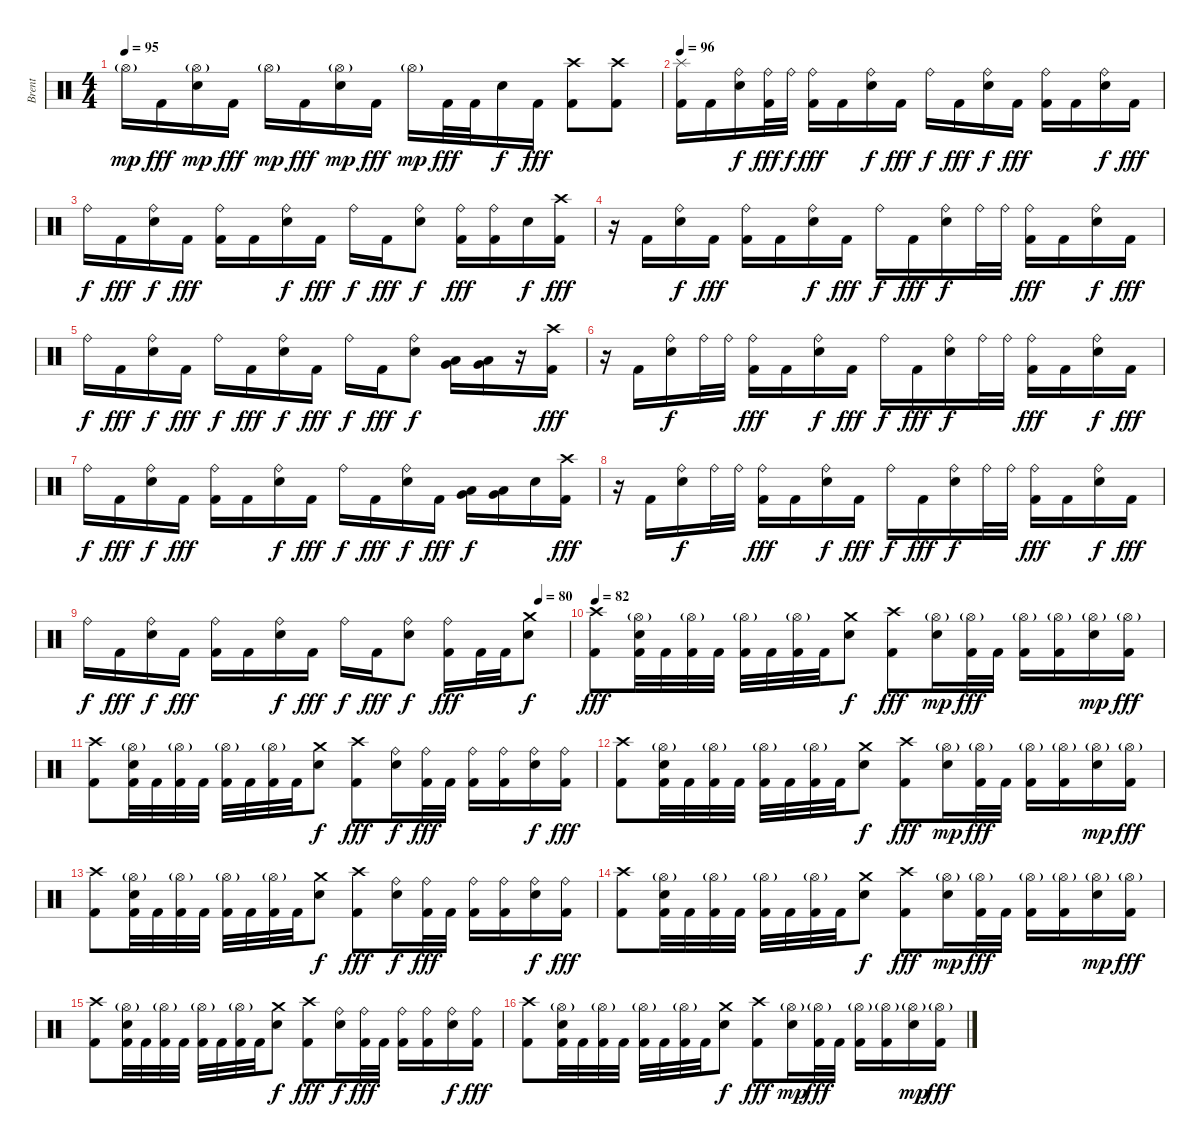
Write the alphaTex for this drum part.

\track ("Brent" "Brent") {instrument percussion}
\staff {score}
\articulation defaults
\ts (4 4)
\tempo 95
\clef neutral
\ks c "Hi-Hat (open)"{g}.16{dy mp} "Kick (hit) 2".16{dy fff}
("Hi-Hat (open)"{g} "Snare (hit) 2").16{dy mp} "Kick (hit) 2".16{dy fff} "Hi-Hat (open)"{g}.16{dy mp} "Kick (hit) 2".16{dy fff} ("Hi-Hat (open)"{g} "Snare (hit) 2").16{dy mp} "Kick (hit) 2".16{dy fff} "Hi-Hat (open)"{g}.16{dy mp} "Kick (hit) 2".32{dy fff} "Kick (hit) 2".32 "Snare (hit) 2".16{dy f} "Kick (hit) 2".16{dy fff} ("Crash high (hit)" "Kick (hit) 2").8 ("Crash high (hit)" "Kick (hit) 2").8 |
\tempo 96
("Splash (hit)" "Kick (hit) 2").16 "Kick (hit) 2".16 ("Ride (bell)" "Snare (hit) 2").16{dy f} ("Ride (bell)" "Kick (hit) 2").32{dy fff} "Ride (bell)".32{dy f} ("Ride (bell)" "Kick (hit) 2").16{dy fff} "Kick (hit) 2".16 ("Ride (bell)" "Snare (hit) 2").16{dy f} "Kick (hit) 2".16{dy fff} "Ride (bell)".16{dy f} "Kick (hit) 2".16{dy fff} ("Ride (bell)" "Snare (hit) 2").16{dy f} "Kick (hit) 2".16{dy fff} ("Ride (bell)" "Kick (hit) 2").16 "Kick (hit) 2".16 ("Ride (bell)" "Snare (hit) 2").16{dy f} "Kick (hit) 2".16{dy fff} |
"Ride (bell)".16{dy f} "Kick (hit) 2".16{dy fff} ("Ride (bell)" "Snare (hit) 2").16{dy f} "Kick (hit) 2".16{dy fff} ("Ride (bell)" "Kick (hit) 2").16 "Kick (hit) 2".16 ("Ride (bell)" "Snare (hit) 2").16{dy f} "Kick (hit) 2".16{dy fff} "Ride (bell)".16{dy f} "Kick (hit) 2".16{dy fff} ("Ride (bell)" "Snare (hit) 2").8{dy f} ("Ride (bell)" "Kick (hit) 2").16{dy fff} ("Ride (bell)" "Kick (hit) 2").16 "Snare (hit) 2".16{dy f} ("Crash high (hit)" "Kick (hit) 2").16{dy fff} |
r.16 "Kick (hit) 2".16 ("Ride (bell)" "Snare (hit) 2").16{dy f} "Kick (hit) 2".16{dy fff} ("Ride (bell)" "Kick (hit) 2").16 "Kick (hit) 2".16 ("Ride (bell)" "Snare (hit) 2").16{dy f} "Kick (hit) 2".16{dy fff} "Ride (bell)".16{dy f} "Kick (hit) 2".16{dy fff} ("Ride (bell)" "Snare (hit) 2").16{dy f} "Ride (bell)".32 "Ride (bell)".32 ("Ride (bell)" "Kick (hit) 2").16{dy fff} "Kick (hit) 2".16 ("Ride (bell)" "Snare (hit) 2").16{dy f} "Kick (hit) 2".16{dy fff} |
"Ride (bell)".16{dy f} "Kick (hit) 2".16{dy fff} ("Ride (bell)" "Snare (hit) 2").16{dy f} "Kick (hit) 2".16{dy fff} "Ride (bell)".16{dy f} "Kick (hit) 2".16{dy fff} ("Ride (bell)" "Snare (hit) 2").16{dy f} "Kick (hit) 2".16{dy fff} "Ride (bell)".16{dy f} "Kick (hit) 2".16{dy fff} ("Ride (bell)" "Snare (hit) 2").8{dy f} ("Very Low Tom (hit)" "Low Floor Tom (hit)").16 ("Very Low Tom (hit)" "Low Floor Tom (hit)").16 r.16 ("Crash high (hit)" "Kick (hit) 2").16{dy fff} |
r.16 "Kick (hit) 2".16 ("Ride (bell)" "Snare (hit) 2").16{dy f} "Ride (bell)".32 "Ride (bell)".32 ("Ride (bell)" "Kick (hit) 2").16{dy fff} "Kick (hit) 2".16 ("Ride (bell)" "Snare (hit) 2").16{dy f} "Kick (hit) 2".16{dy fff} "Ride (bell)".16{dy f} "Kick (hit) 2".16{dy fff} ("Ride (bell)" "Snare (hit) 2").16{dy f} "Ride (bell)".32 "Ride (bell)".32 ("Ride (bell)" "Kick (hit) 2").16{dy fff} "Kick (hit) 2".16 ("Ride (bell)" "Snare (hit) 2").16{dy f} "Kick (hit) 2".16{dy fff} |
"Ride (bell)".16{dy f} "Kick (hit) 2".16{dy fff} ("Ride (bell)" "Snare (hit) 2").16{dy f} "Kick (hit) 2".16{dy fff} ("Ride (bell)" "Kick (hit) 2").16 "Kick (hit) 2".16 ("Ride (bell)" "Snare (hit) 2").16{dy f} "Kick (hit) 2".16{dy fff} "Ride (bell)".16{dy f} "Kick (hit) 2".16{dy fff} ("Ride (bell)" "Snare (hit) 2").16{dy f} "Kick (hit) 2".16{dy fff} ("Low Tom (hit)" "Very Low Tom (hit)").16{dy f} ("Very Low Tom (hit)" "Low Floor Tom (hit)").16 "Snare (hit) 2".16 ("Crash high (hit)" "Kick (hit) 2").16{dy fff} |
r.16 "Kick (hit) 2".16 ("Ride (bell)" "Snare (hit) 2").16{dy f} "Ride (bell)".32 "Ride (bell)".32 ("Ride (bell)" "Kick (hit) 2").16{dy fff} "Kick (hit) 2".16 ("Ride (bell)" "Snare (hit) 2").16{dy f} "Kick (hit) 2".16{dy fff} "Ride (bell)".16{dy f} "Kick (hit) 2".16{dy fff} ("Ride (bell)" "Snare (hit) 2").16{dy f} "Ride (bell)".32 "Ride (bell)".32 ("Ride (bell)" "Kick (hit) 2").16{dy fff} "Kick (hit) 2".16 ("Ride (bell)" "Snare (hit) 2").16{dy f} "Kick (hit) 2".16{dy fff} |
\tempo (80 0.9375)
"Ride (bell)".16{dy f} "Kick (hit) 2".16{dy fff} ("Ride (bell)" "Snare (hit) 2").16{dy f} "Kick (hit) 2".16{dy fff} ("Ride (bell)" "Kick (hit) 2").16 "Kick (hit) 2".16 ("Ride (bell)" "Snare (hit) 2").16{dy f} "Kick (hit) 2".16{dy fff} "Ride (bell)".16{dy f} "Kick (hit) 2".16{dy fff} ("Ride (bell)" "Snare (hit) 2").8{dy f} ("Ride (bell)" "Kick (hit) 2").16{dy fff} "Kick (hit) 2".32 "Kick (hit) 2".32 ("Crash medium (hit)" "Snare (hit) 2").8{dy f} |
\tempo 82
("Crash high (hit)" "Kick (hit) 2").8{dy fff} ("Hi-Hat (open)"{g} "Snare (hit) 2" "Kick (hit) 2").32 "Kick (hit) 2".32 ("Hi-Hat (open)"{g} "Kick (hit) 2").32 "Kick (hit) 2".32 ("Hi-Hat (open)"{g} "Kick (hit) 2").32 "Kick (hit) 2".32 ("Hi-Hat (open)"{g} "Kick (hit) 2").32 "Kick (hit) 2".32 ("Crash medium (hit)" "Snare (hit) 2").8{dy f} ("Crash high (hit)" "Kick (hit) 2").8{dy fff} ("Hi-Hat (open)"{g} "Snare (hit) 2").16{dy mp} ("Hi-Hat (open)"{g} "Kick (hit) 2").32{dy fff} "Kick (hit) 2".32 ("Hi-Hat (open)"{g} "Kick (hit) 2").16 ("Hi-Hat (open)"{g} "Kick (hit) 2").16 ("Hi-Hat (open)"{g} "Snare (hit) 2").16{dy mp} ("Hi-Hat (open)"{g} "Kick (hit) 2").16{dy fff} |
("Crash high (hit)" "Kick (hit) 2").8 ("Hi-Hat (open)"{g} "Snare (hit) 2" "Kick (hit) 2").32 "Kick (hit) 2".32 ("Hi-Hat (open)"{g} "Kick (hit) 2").32 "Kick (hit) 2".32 ("Hi-Hat (open)"{g} "Kick (hit) 2").32 "Kick (hit) 2".32 ("Hi-Hat (open)"{g} "Kick (hit) 2").32 "Kick (hit) 2".32 ("Crash medium (hit)" "Snare (hit) 2").8{dy f} ("Crash high (hit)" "Kick (hit) 2").8{dy fff} ("Ride (bell)" "Snare (hit) 2").16{dy f} ("Ride (bell)" "Kick (hit) 2").32{dy fff} "Kick (hit) 2".32 ("Ride (bell)" "Kick (hit) 2").16 ("Ride (bell)" "Kick (hit) 2").16 ("Ride (bell)" "Snare (hit) 2").16{dy f} ("Ride (bell)" "Kick (hit) 2").16{dy fff} |
("Crash high (hit)" "Kick (hit) 2").8 ("Hi-Hat (open)"{g} "Snare (hit) 2" "Kick (hit) 2").32 "Kick (hit) 2".32 ("Hi-Hat (open)"{g} "Kick (hit) 2").32 "Kick (hit) 2".32 ("Hi-Hat (open)"{g} "Kick (hit) 2").32 "Kick (hit) 2".32 ("Hi-Hat (open)"{g} "Kick (hit) 2").32 "Kick (hit) 2".32 ("Crash medium (hit)" "Snare (hit) 2").8{dy f} ("Crash high (hit)" "Kick (hit) 2").8{dy fff} ("Hi-Hat (open)"{g} "Snare (hit) 2").16{dy mp} ("Hi-Hat (open)"{g} "Kick (hit) 2").32{dy fff} "Kick (hit) 2".32 ("Hi-Hat (open)"{g} "Kick (hit) 2").16 ("Hi-Hat (open)"{g} "Kick (hit) 2").16 ("Hi-Hat (open)"{g} "Snare (hit) 2").16{dy mp} ("Hi-Hat (open)"{g} "Kick (hit) 2").16{dy fff} |
("Crash high (hit)" "Kick (hit) 2").8 ("Hi-Hat (open)"{g} "Snare (hit) 2" "Kick (hit) 2").32 "Kick (hit) 2".32 ("Hi-Hat (open)"{g} "Kick (hit) 2").32 "Kick (hit) 2".32 ("Hi-Hat (open)"{g} "Kick (hit) 2").32 "Kick (hit) 2".32 ("Hi-Hat (open)"{g} "Kick (hit) 2").32 "Kick (hit) 2".32 ("Crash medium (hit)" "Snare (hit) 2").8{dy f} ("Crash high (hit)" "Kick (hit) 2").8{dy fff} ("Ride (bell)" "Snare (hit) 2").16{dy f} ("Ride (bell)" "Kick (hit) 2").32{dy fff} "Kick (hit) 2".32 ("Ride (bell)" "Kick (hit) 2").16 ("Ride (bell)" "Kick (hit) 2").16 ("Ride (bell)" "Snare (hit) 2").16{dy f} ("Ride (bell)" "Kick (hit) 2").16{dy fff} |
("Crash high (hit)" "Kick (hit) 2").8 ("Hi-Hat (open)"{g} "Snare (hit) 2" "Kick (hit) 2").32 "Kick (hit) 2".32 ("Hi-Hat (open)"{g} "Kick (hit) 2").32 "Kick (hit) 2".32 ("Hi-Hat (open)"{g} "Kick (hit) 2").32 "Kick (hit) 2".32 ("Hi-Hat (open)"{g} "Kick (hit) 2").32 "Kick (hit) 2".32 ("Crash medium (hit)" "Snare (hit) 2").8{dy f} ("Crash high (hit)" "Kick (hit) 2").8{dy fff} ("Hi-Hat (open)"{g} "Snare (hit) 2").16{dy mp} ("Hi-Hat (open)"{g} "Kick (hit) 2").32{dy fff} "Kick (hit) 2".32 ("Hi-Hat (open)"{g} "Kick (hit) 2").16 ("Hi-Hat (open)"{g} "Kick (hit) 2").16 ("Hi-Hat (open)"{g} "Snare (hit) 2").16{dy mp} ("Hi-Hat (open)"{g} "Kick (hit) 2").16{dy fff} |
("Crash high (hit)" "Kick (hit) 2").8 ("Hi-Hat (open)"{g} "Snare (hit) 2" "Kick (hit) 2").32 "Kick (hit) 2".32 ("Hi-Hat (open)"{g} "Kick (hit) 2").32 "Kick (hit) 2".32 ("Hi-Hat (open)"{g} "Kick (hit) 2").32 "Kick (hit) 2".32 ("Hi-Hat (open)"{g} "Kick (hit) 2").32 "Kick (hit) 2".32 ("Crash medium (hit)" "Snare (hit) 2").8{dy f} ("Crash high (hit)" "Kick (hit) 2").8{dy fff} ("Ride (bell)" "Snare (hit) 2").16{dy f} ("Ride (bell)" "Kick (hit) 2").32{dy fff} "Kick (hit) 2".32 ("Ride (bell)" "Kick (hit) 2").16 ("Ride (bell)" "Kick (hit) 2").16 ("Ride (bell)" "Snare (hit) 2").16{dy f} ("Ride (bell)" "Kick (hit) 2").16{dy fff} |
("Crash high (hit)" "Kick (hit) 2").8 ("Hi-Hat (open)"{g} "Snare (hit) 2" "Kick (hit) 2").32 "Kick (hit) 2".32 ("Hi-Hat (open)"{g} "Kick (hit) 2").32 "Kick (hit) 2".32 ("Hi-Hat (open)"{g} "Kick (hit) 2").32 "Kick (hit) 2".32 ("Hi-Hat (open)"{g} "Kick (hit) 2").32 "Kick (hit) 2".32 ("Crash medium (hit)" "Snare (hit) 2").8{dy f} ("Crash high (hit)" "Kick (hit) 2").8{dy fff} ("Hi-Hat (open)"{g} "Snare (hit) 2").16{dy mp} ("Hi-Hat (open)"{g} "Kick (hit) 2").32{dy fff} "Kick (hit) 2".32 ("Hi-Hat (open)"{g} "Kick (hit) 2").16 ("Hi-Hat (open)"{g} "Kick (hit) 2").16 ("Hi-Hat (open)"{g} "Snare (hit) 2").16{dy mp} ("Hi-Hat (open)"{g} "Kick (hit) 2").16{dy fff}
